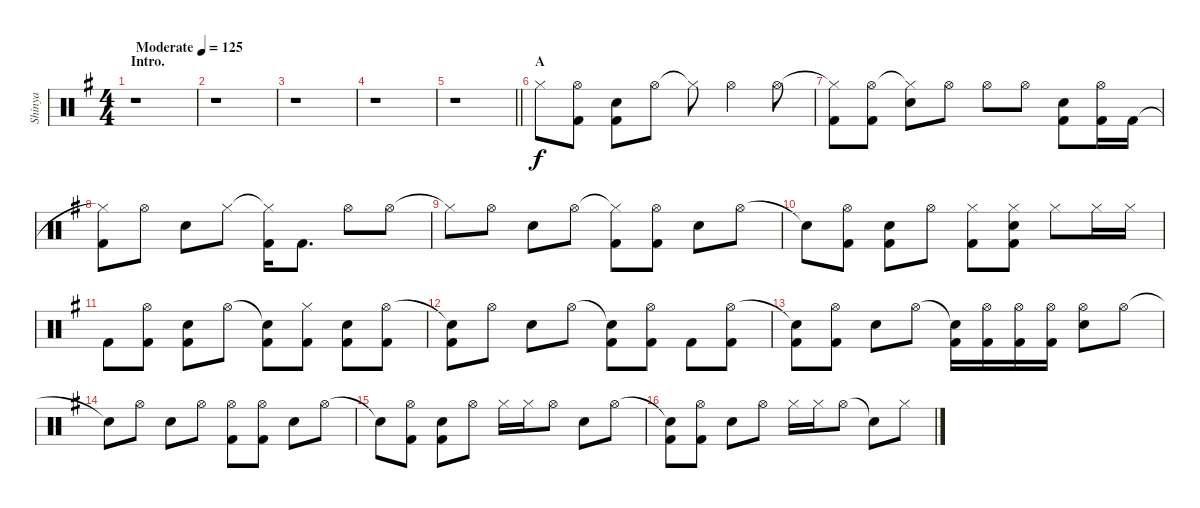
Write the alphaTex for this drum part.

\track ("Shinya" "Shinya") {instrument percussion}
\staff {score}
\articulation defaults
\ts (4 4)
\section ("" "Intro.")
\tempo (125 "Moderate")
\clef neutral
\ks g
r.1{dy f} |
r.1 |
r.1 |
r.1 |
\barLineRight lightlight
r.1 |
\section ("" "A")
"Hi-Hat (closed)".8 ("Hi-Hat (open)" "Kick (hit) 2").8 ("Snare (hit) 2" "Kick (hit) 2").8 "Hi-Hat (open)".8 "Hi-Hat (closed)"{t}.8 "Hi-Hat (open)".4 "Hi-Hat (open)".8 |
("Hi-Hat (closed)"{t} "Kick (hit) 2").8 ("Hi-Hat (open)" "Kick (hit) 2").8 ("Hi-Hat (closed)"{t} "Snare (hit) 2").8 "Hi-Hat (open)".8 "Hi-Hat (open)".8 "Hi-Hat (open)".8 ("Snare (hit) 2" "Kick (hit) 2").8 ("Hi-Hat (open)" "Kick (hit) 2").16 "Kick (hit) 2".16 |
("Hi-Hat (closed)"{t} "Kick (hit) 2").8 "Hi-Hat (open)".8 "Snare (hit) 2".8 "Hi-Hat (closed)".8 ("Hi-Hat (closed)"{t} "Kick (hit) 2").16 "Kick (hit) 2".8{d} "Hi-Hat (open)".8 "Hi-Hat (open)".8 |
"Hi-Hat (closed)"{t}.8 "Hi-Hat (open)".8 "Snare (hit) 2".8 "Hi-Hat (open)".8 ("Hi-Hat (closed)"{t} "Kick (hit) 2").8 ("Hi-Hat (open)" "Kick (hit) 2").8 "Snare (hit) 2".8 "Hi-Hat (open)".8 |
"Snare (hit)"{t}.8 ("Hi-Hat (open)" "Kick (hit) 2").8 ("Snare (hit) 2" "Kick (hit) 2").8 "Hi-Hat (open)".8 ("Hi-Hat (closed)" "Kick (hit) 2").8 ("Hi-Hat (closed)" "Snare (hit) 2" "Kick (hit) 2").8 "Hi-Hat (closed)".8 "Hi-Hat (closed)".16 "Hi-Hat (closed)".16 |
"Kick (hit) 2".8 ("Hi-Hat (open)" "Kick (hit) 2").8 ("Snare (hit) 2" "Kick (hit) 2").8 "Hi-Hat (open)".8 ("Snare (hit)"{t} "Kick (hit) 2").8 ("Hi-Hat (closed)" "Kick (hit) 2").8 ("Snare (hit) 2" "Kick (hit) 2").8 ("Hi-Hat (open)" "Kick (hit) 2").8 |
("Snare (hit)"{t} "Kick (hit) 2").8 "Hi-Hat (open)".8 "Snare (hit) 2".8 "Hi-Hat (open)".8 ("Snare (hit)"{t} "Kick (hit) 2").8 ("Hi-Hat (open)" "Kick (hit) 2").8 "Kick (hit) 2".8 ("Hi-Hat (open)" "Kick (hit) 2").8 |
("Snare (hit)"{t} "Kick (hit) 2").8 ("Hi-Hat (open)" "Kick (hit) 2").8 "Snare (hit) 2".8 "Hi-Hat (open)".8 ("Snare (hit)"{t} "Kick (hit) 2").16 ("Hi-Hat (open)" "Kick (hit) 2").16 ("Hi-Hat (open)" "Kick (hit) 2").16 ("Hi-Hat (open)" "Kick (hit) 2").16 ("Hi-Hat (open)" "Snare (hit) 2").8 "Hi-Hat (open)".8 |
"Snare (hit)"{t}.8 "Hi-Hat (open)".8 "Snare (hit) 2".8 "Hi-Hat (open)".8 ("Hi-Hat (open)" "Kick (hit) 2").8 ("Hi-Hat (open)" "Kick (hit) 2").8 "Snare (hit) 2".8 "Hi-Hat (open)".8 |
"Snare (hit)"{t}.8 ("Hi-Hat (open)" "Kick (hit) 2").8 ("Snare (hit) 2" "Kick (hit) 2").8 "Hi-Hat (open)".8 "Hi-Hat (closed)".16 "Hi-Hat (closed)".16 "Hi-Hat (open)".8 "Snare (hit) 2".8 "Hi-Hat (open)".8 |
("Snare (hit)"{t} "Kick (hit) 2").8 ("Hi-Hat (open)" "Kick (hit) 2").8 "Snare (hit) 2".8 "Hi-Hat (open)".8 "Hi-Hat (closed)".16 "Hi-Hat (closed)".16 "Hi-Hat (open)".8 "Snare (hit)"{t}.8 "Hi-Hat (closed)".8
